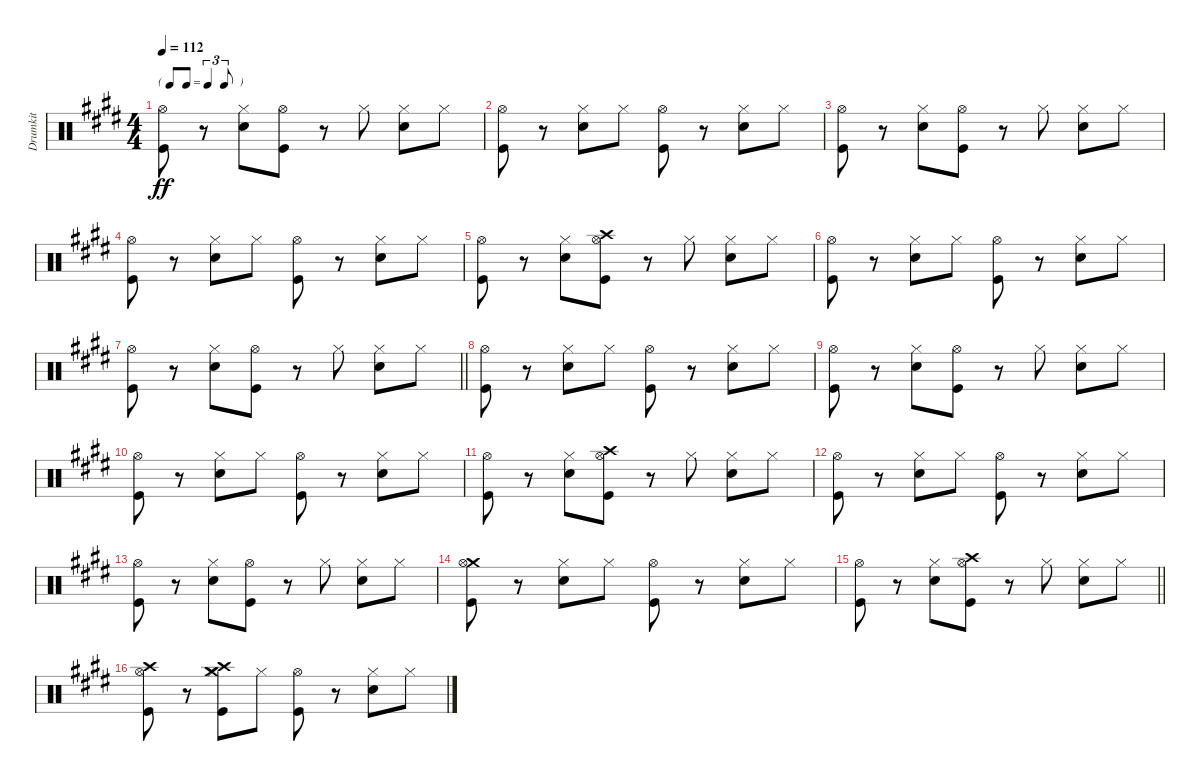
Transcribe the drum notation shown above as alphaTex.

\track ("Drumkit" "Drumkit") {instrument percussion}
\staff {score}
\articulation defaults
\ts (4 4)
\tf triplet8th
\tempo 112
\clef neutral
\ks e
("Hi-Hat (open)" "Kick (hit)").8{dy ff} r.8 ("Snare (hit) 2" "Hi-Hat (closed)").8 ("Hi-Hat (open)" "Kick (hit)").8 r.8 "Hi-Hat (closed)".8 ("Snare (hit) 2" "Hi-Hat (closed)").8 "Hi-Hat (closed)".8 |
("Hi-Hat (open)" "Kick (hit)").8 r.8 ("Snare (hit) 2" "Hi-Hat (closed)").8 "Hi-Hat (closed)".8 ("Kick (hit)" "Hi-Hat (open)").8 r.8 ("Snare (hit) 2" "Hi-Hat (closed)").8 "Hi-Hat (closed)".8 |
("Hi-Hat (open)" "Kick (hit)").8 r.8 ("Snare (hit) 2" "Hi-Hat (closed)").8 ("Hi-Hat (open)" "Kick (hit)").8 r.8 "Hi-Hat (closed)".8 ("Snare (hit) 2" "Hi-Hat (closed)").8 "Hi-Hat (closed)".8 |
("Hi-Hat (open)" "Kick (hit)").8 r.8 ("Snare (hit) 2" "Hi-Hat (closed)").8 "Hi-Hat (closed)".8 ("Hi-Hat (open)" "Kick (hit)").8 r.8 ("Snare (hit) 2" "Hi-Hat (closed)").8 "Hi-Hat (closed)".8 |
("Hi-Hat (open)" "Kick (hit)").8 r.8 ("Snare (hit) 2" "Hi-Hat (closed)").8 ("Hi-Hat (open)" "Kick (hit)" "Crash high (hit)").8 r.8 "Hi-Hat (closed)".8 ("Snare (hit) 2" "Hi-Hat (closed)").8 "Hi-Hat (closed)".8 |
("Hi-Hat (open)" "Kick (hit)").8 r.8 ("Snare (hit) 2" "Hi-Hat (closed)").8 "Hi-Hat (closed)".8 ("Kick (hit)" "Hi-Hat (open)").8 r.8 ("Snare (hit) 2" "Hi-Hat (closed)").8 "Hi-Hat (closed)".8 |
\barLineRight lightlight
("Hi-Hat (open)" "Kick (hit)").8 r.8 ("Snare (hit) 2" "Hi-Hat (closed)").8 ("Hi-Hat (open)" "Kick (hit)").8 r.8 "Hi-Hat (closed)".8 ("Snare (hit) 2" "Hi-Hat (closed)").8 "Hi-Hat (closed)".8 |
\section ("" "")
("Hi-Hat (open)" "Kick (hit)").8 r.8 ("Snare (hit) 2" "Hi-Hat (closed)").8 "Hi-Hat (closed)".8 ("Hi-Hat (open)" "Kick (hit)").8 r.8 ("Snare (hit) 2" "Hi-Hat (closed)").8 "Hi-Hat (closed)".8 |
("Hi-Hat (open)" "Kick (hit)").8 r.8 ("Snare (hit) 2" "Hi-Hat (closed)").8 ("Kick (hit)" "Hi-Hat (open)").8 r.8 "Hi-Hat (closed)".8 ("Snare (hit) 2" "Hi-Hat (closed)").8 "Hi-Hat (closed)".8 |
("Hi-Hat (open)" "Kick (hit)").8 r.8 ("Snare (hit) 2" "Hi-Hat (closed)").8 "Hi-Hat (closed)".8 ("Kick (hit)" "Hi-Hat (open)").8 r.8 ("Snare (hit) 2" "Hi-Hat (closed)").8 "Hi-Hat (closed)".8 |
("Hi-Hat (open)" "Kick (hit)").8 r.8 ("Snare (hit) 2" "Hi-Hat (closed)").8 ("Hi-Hat (open)" "Kick (hit)" "Crash high (hit)").8 r.8 "Hi-Hat (closed)".8 ("Snare (hit) 2" "Hi-Hat (closed)").8 "Hi-Hat (closed)".8 |
("Hi-Hat (open)" "Kick (hit)").8 r.8 ("Snare (hit) 2" "Hi-Hat (closed)").8 "Hi-Hat (closed)".8 ("Hi-Hat (open)" "Kick (hit)").8 r.8 ("Snare (hit) 2" "Hi-Hat (closed)").8 "Hi-Hat (closed)".8 |
("Hi-Hat (open)" "Kick (hit)").8 r.8 ("Snare (hit) 2" "Hi-Hat (closed)").8 ("Hi-Hat (open)" "Kick (hit)").8 r.8 "Hi-Hat (closed)".8 ("Snare (hit) 2" "Hi-Hat (closed)").8 "Hi-Hat (closed)".8 |
("Kick (hit)" "Crash medium (hit)" "Hi-Hat (open)").8 r.8 ("Snare (hit) 2" "Hi-Hat (closed)").8 "Hi-Hat (closed)".8 ("Kick (hit)" "Hi-Hat (open)").8 r.8 ("Snare (hit) 2" "Hi-Hat (closed)").8 "Hi-Hat (closed)".8 |
\barLineRight lightlight
("Hi-Hat (open)" "Kick (hit)").8 r.8 ("Snare (hit) 2" "Hi-Hat (closed)").8 ("Hi-Hat (open)" "Kick (hit)" "Crash high (hit)").8 r.8 "Hi-Hat (closed)".8 ("Snare (hit) 2" "Hi-Hat (closed)").8 "Hi-Hat (closed)".8 |
\section ("" "")
("Hi-Hat (open)" "Kick (hit)" "Crash high (hit)").8 r.8 ("Hi-Hat (closed)" "Crash medium (hit)" "Crash high (hit)" "Kick (hit)").8 "Hi-Hat (closed)".8 ("Hi-Hat (open)" "Kick (hit)").8 r.8 ("Snare (hit) 2" "Hi-Hat (closed)").8 "Hi-Hat (closed)".8
